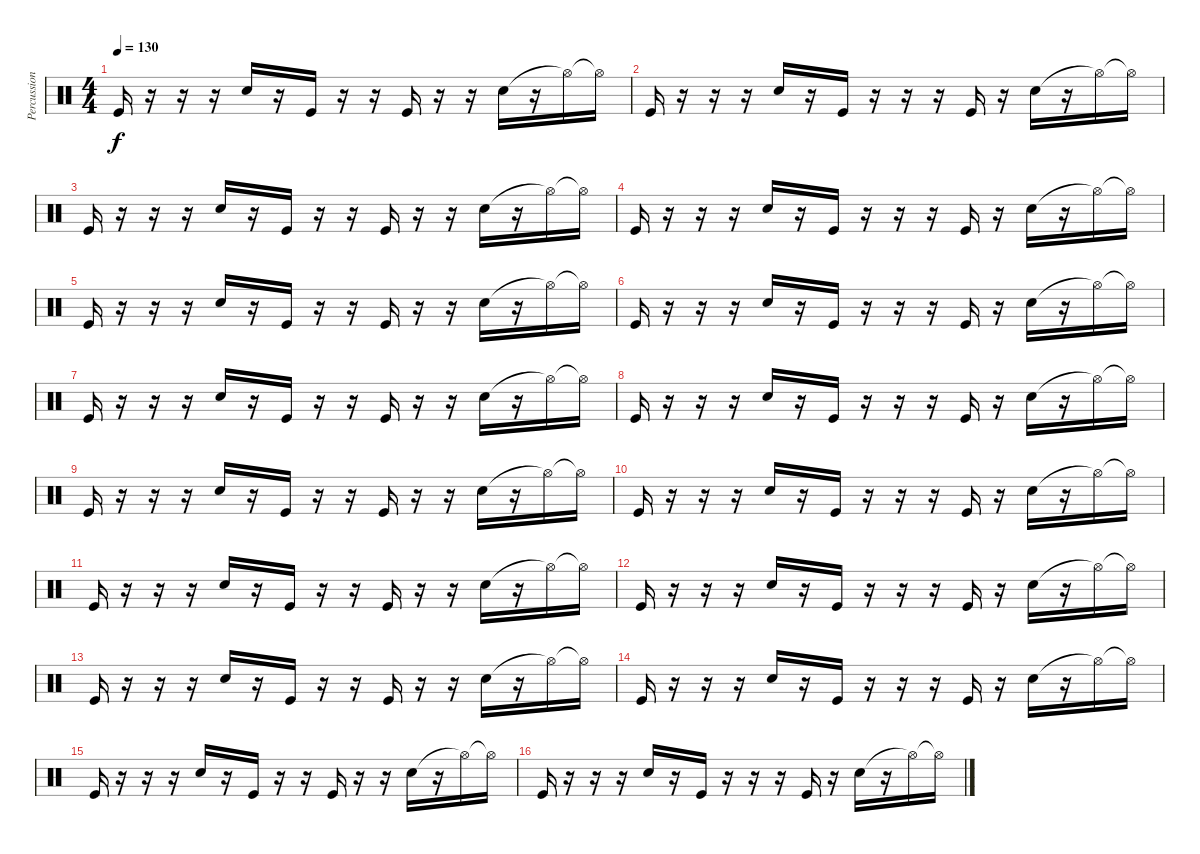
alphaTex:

\track ("Percussion" "Percussion") {instrument percussion}
\staff {score}
\articulation defaults
\ts (4 4)
\tempo 130
\clef neutral
\ks c "Kick (hit)".16{dy f}
r.16 r.16 r.16 "Hand Clap (hit)".16 r.16 "Kick (hit)".16 r.16 r.16 "Kick (hit)".16 r.16 r.16 "Hand Clap (hit)".16 r.16 "Hi-Hat (open)"{t}.16 "Hi-Hat (open)"{t}.16 |
"Kick (hit)".16 r.16 r.16 r.16 "Hand Clap (hit)".16 r.16 "Kick (hit)".16 r.16 r.16 r.16 "Kick (hit)".16 r.16 "Hand Clap (hit)".16 r.16 "Hi-Hat (open)"{t}.16 "Hi-Hat (open)"{t}.16 |
"Kick (hit)".16 r.16 r.16 r.16 "Hand Clap (hit)".16 r.16 "Kick (hit)".16 r.16 r.16 "Kick (hit)".16 r.16 r.16 "Hand Clap (hit)".16 r.16 "Hi-Hat (open)"{t}.16 "Hi-Hat (open)"{t}.16 |
"Kick (hit)".16 r.16 r.16 r.16 "Hand Clap (hit)".16 r.16 "Kick (hit)".16 r.16 r.16 r.16 "Kick (hit)".16 r.16 "Hand Clap (hit)".16 r.16 "Hi-Hat (open)"{t}.16 "Hi-Hat (open)"{t}.16 |
"Kick (hit)".16 r.16 r.16 r.16 "Hand Clap (hit)".16 r.16 "Kick (hit)".16 r.16 r.16 "Kick (hit)".16 r.16 r.16 "Hand Clap (hit)".16 r.16 "Hi-Hat (open)"{t}.16 "Hi-Hat (open)"{t}.16 |
"Kick (hit)".16 r.16 r.16 r.16 "Hand Clap (hit)".16 r.16 "Kick (hit)".16 r.16 r.16 r.16 "Kick (hit)".16 r.16 "Hand Clap (hit)".16 r.16 "Hi-Hat (open)"{t}.16 "Hi-Hat (open)"{t}.16 |
"Kick (hit)".16 r.16 r.16 r.16 "Hand Clap (hit)".16 r.16 "Kick (hit)".16 r.16 r.16 "Kick (hit)".16 r.16 r.16 "Hand Clap (hit)".16 r.16 "Hi-Hat (open)"{t}.16 "Hi-Hat (open)"{t}.16 |
"Kick (hit)".16 r.16 r.16 r.16 "Hand Clap (hit)".16 r.16 "Kick (hit)".16 r.16 r.16 r.16 "Kick (hit)".16 r.16 "Hand Clap (hit)".16 r.16 "Hi-Hat (open)"{t}.16 "Hi-Hat (open)"{t}.16 |
"Kick (hit)".16 r.16 r.16 r.16 "Hand Clap (hit)".16 r.16 "Kick (hit)".16 r.16 r.16 "Kick (hit)".16 r.16 r.16 "Hand Clap (hit)".16 r.16 "Hi-Hat (open)"{t}.16 "Hi-Hat (open)"{t}.16 |
"Kick (hit)".16 r.16 r.16 r.16 "Hand Clap (hit)".16 r.16 "Kick (hit)".16 r.16 r.16 r.16 "Kick (hit)".16 r.16 "Hand Clap (hit)".16 r.16 "Hi-Hat (open)"{t}.16 "Hi-Hat (open)"{t}.16 |
"Kick (hit)".16 r.16 r.16 r.16 "Hand Clap (hit)".16 r.16 "Kick (hit)".16 r.16 r.16 "Kick (hit)".16 r.16 r.16 "Hand Clap (hit)".16 r.16 "Hi-Hat (open)"{t}.16 "Hi-Hat (open)"{t}.16 |
"Kick (hit)".16 r.16 r.16 r.16 "Hand Clap (hit)".16 r.16 "Kick (hit)".16 r.16 r.16 r.16 "Kick (hit)".16 r.16 "Hand Clap (hit)".16 r.16 "Hi-Hat (open)"{t}.16 "Hi-Hat (open)"{t}.16 |
"Kick (hit)".16 r.16 r.16 r.16 "Hand Clap (hit)".16 r.16 "Kick (hit)".16 r.16 r.16 "Kick (hit)".16 r.16 r.16 "Hand Clap (hit)".16 r.16 "Hi-Hat (open)"{t}.16 "Hi-Hat (open)"{t}.16 |
"Kick (hit)".16 r.16 r.16 r.16 "Hand Clap (hit)".16 r.16 "Kick (hit)".16 r.16 r.16 r.16 "Kick (hit)".16 r.16 "Hand Clap (hit)".16 r.16 "Hi-Hat (open)"{t}.16 "Hi-Hat (open)"{t}.16 |
"Kick (hit)".16 r.16 r.16 r.16 "Hand Clap (hit)".16 r.16 "Kick (hit)".16 r.16 r.16 "Kick (hit)".16 r.16 r.16 "Hand Clap (hit)".16 r.16 "Hi-Hat (open)"{t}.16 "Hi-Hat (open)"{t}.16 |
"Kick (hit)".16 r.16 r.16 r.16 "Hand Clap (hit)".16 r.16 "Kick (hit)".16 r.16 r.16 r.16 "Kick (hit)".16 r.16 "Hand Clap (hit)".16 r.16 "Hi-Hat (open)"{t}.16 "Hi-Hat (open)"{t}.16
